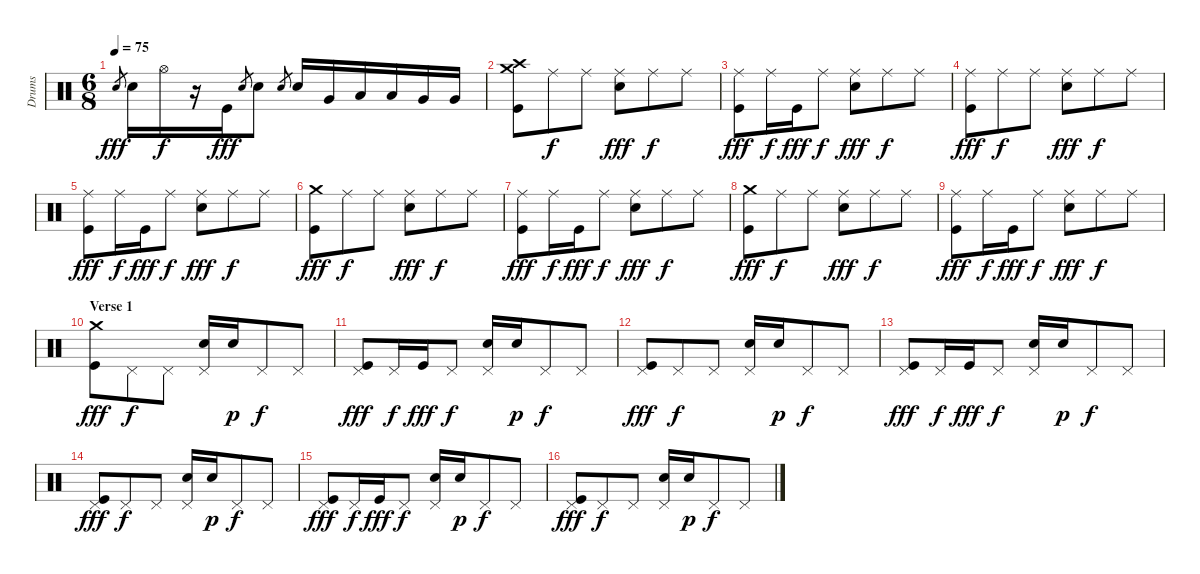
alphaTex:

\track ("Drums" "Drums") {instrument percussion}
\staff {score}
\articulation defaults
\ts (6 8)
\tempo 75
\clef neutral
\ks c "Snare (hit) 2".8{gr dy fff} "Snare (hit) 2".16 "Hi-Hat (open)".16{dy f}
r.16 "Kick (hit)".16{dy fff} "Snare (hit) 2".8{gr} "Snare (hit) 2".8 "Snare (hit) 2".8{gr} "Snare (hit) 2".16 "Very Low Tom (hit)".16 "Low Tom (hit)".16 "Low Tom (hit)".16 "Very Low Tom (hit)".16 "Very Low Tom (hit)".16 |
("Crash medium (hit)" "Crash high (hit)" "Kick (hit)").8 "Ride (middle)".8{dy f} "Ride (middle)".8 ("Ride (middle)" "Snare (hit) 2").8{dy fff} "Ride (middle)".8{dy f} "Ride (middle)".8 |
("Ride (middle)" "Kick (hit)").8{dy fff} "Ride (middle)".16{dy f} "Kick (hit)".16{dy fff} "Ride (middle)".8{dy f} ("Ride (middle)" "Snare (hit) 2").8{dy fff} "Ride (middle)".8{dy f} "Ride (middle)".8 |
("Ride (middle)" "Kick (hit)").8{dy fff} "Ride (middle)".8{dy f} "Ride (middle)".8 ("Ride (middle)" "Snare (hit) 2").8{dy fff} "Ride (middle)".8{dy f} "Ride (middle)".8 |
("Ride (middle)" "Kick (hit)").8{dy fff} "Ride (middle)".16{dy f} "Kick (hit)".16{dy fff} "Ride (middle)".8{dy f} ("Ride (middle)" "Snare (hit) 2").8{dy fff} "Ride (middle)".8{dy f} "Ride (middle)".8 |
("Crash medium (hit)" "Kick (hit)").8{dy fff} "Ride (middle)".8{dy f} "Ride (middle)".8 ("Ride (middle)" "Snare (hit) 2").8{dy fff} "Ride (middle)".8{dy f} "Ride (middle)".8 |
("Ride (middle)" "Kick (hit)").8{dy fff} "Ride (middle)".16{dy f} "Kick (hit)".16{dy fff} "Ride (middle)".8{dy f} ("Ride (middle)" "Snare (hit) 2").8{dy fff} "Ride (middle)".8{dy f} "Ride (middle)".8 |
("Crash medium (hit)" "Kick (hit)").8{dy fff} "Ride (middle)".8{dy f} "Ride (middle)".8 ("Ride (middle)" "Snare (hit) 2").8{dy fff} "Ride (middle)".8{dy f} "Ride (middle)".8 |
("Ride (middle)" "Kick (hit)").8{dy fff} "Ride (middle)".16{dy f} "Kick (hit)".16{dy fff} "Ride (middle)".8{dy f} ("Ride (middle)" "Snare (hit) 2").8{dy fff} "Ride (middle)".8{dy f} "Ride (middle)".8 |
\section ("" "Verse 1")
("Crash medium (hit)" "Kick (hit)").8{dy fff} "Pedal Hi-Hat (hit)".8{dy f} "Pedal Hi-Hat (hit)".8 ("Pedal Hi-Hat (hit)" "Snare (hit) 2").16 "Snare (hit) 2".16{dy p} "Pedal Hi-Hat (hit)".8{dy f} "Pedal Hi-Hat (hit)".8 |
("Pedal Hi-Hat (hit)" "Kick (hit)").8{dy fff} "Pedal Hi-Hat (hit)".16{dy f} "Kick (hit)".16{dy fff} "Pedal Hi-Hat (hit)".8{dy f} ("Pedal Hi-Hat (hit)" "Snare (hit) 2").16 "Snare (hit) 2".16{dy p} "Pedal Hi-Hat (hit)".8{dy f} "Pedal Hi-Hat (hit)".8 |
("Pedal Hi-Hat (hit)" "Kick (hit)").8{dy fff} "Pedal Hi-Hat (hit)".8{dy f} "Pedal Hi-Hat (hit)".8 ("Pedal Hi-Hat (hit)" "Snare (hit) 2").16 "Snare (hit) 2".16{dy p} "Pedal Hi-Hat (hit)".8{dy f} "Pedal Hi-Hat (hit)".8 |
("Pedal Hi-Hat (hit)" "Kick (hit)").8{dy fff} "Pedal Hi-Hat (hit)".16{dy f} "Kick (hit)".16{dy fff} "Pedal Hi-Hat (hit)".8{dy f} ("Pedal Hi-Hat (hit)" "Snare (hit) 2").16 "Snare (hit) 2".16{dy p} "Pedal Hi-Hat (hit)".8{dy f} "Pedal Hi-Hat (hit)".8 |
("Pedal Hi-Hat (hit)" "Kick (hit)").8{dy fff} "Pedal Hi-Hat (hit)".8{dy f} "Pedal Hi-Hat (hit)".8 ("Pedal Hi-Hat (hit)" "Snare (hit) 2").16 "Snare (hit) 2".16{dy p} "Pedal Hi-Hat (hit)".8{dy f} "Pedal Hi-Hat (hit)".8 |
("Pedal Hi-Hat (hit)" "Kick (hit)").8{dy fff} "Pedal Hi-Hat (hit)".16{dy f} "Kick (hit)".16{dy fff} "Pedal Hi-Hat (hit)".8{dy f} ("Pedal Hi-Hat (hit)" "Snare (hit) 2").16 "Snare (hit) 2".16{dy p} "Pedal Hi-Hat (hit)".8{dy f} "Pedal Hi-Hat (hit)".8 |
("Pedal Hi-Hat (hit)" "Kick (hit)").8{dy fff} "Pedal Hi-Hat (hit)".8{dy f} "Pedal Hi-Hat (hit)".8 ("Pedal Hi-Hat (hit)" "Snare (hit) 2").16 "Snare (hit) 2".16{dy p} "Pedal Hi-Hat (hit)".8{dy f} "Pedal Hi-Hat (hit)".8
